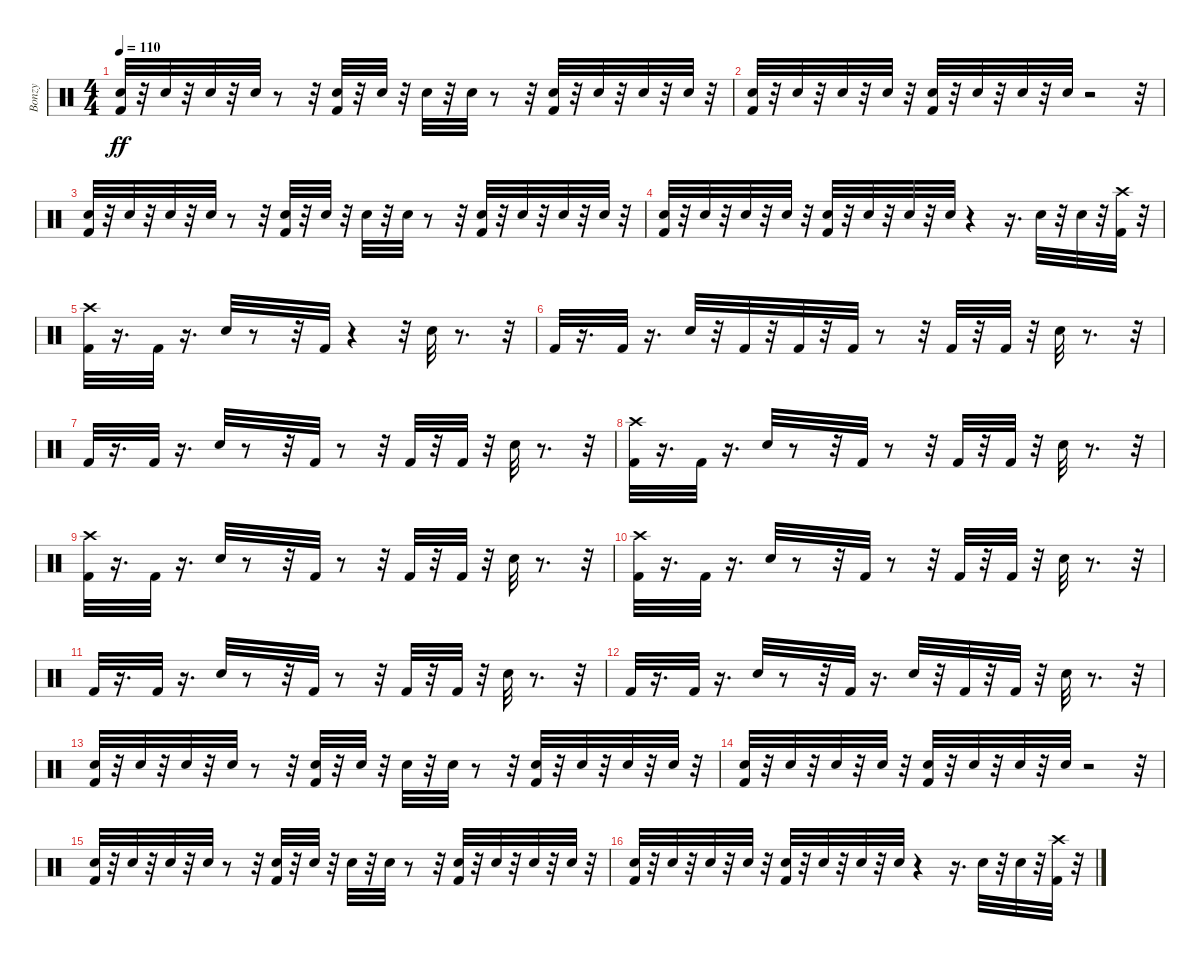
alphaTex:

\track ("Bonzy" "Bonzy") {instrument percussion}
\staff {score}
\articulation defaults
\ts (4 4)
\tempo 110
\clef neutral
\ks c
("Kick (hit) 2" "Electric Snare (hit)").32{dy ff} r.32 "Electric Snare (hit)".32 r.32 "Electric Snare (hit)".32 r.32 "Electric Snare (hit)".32 r.8 r.32 ("Electric Snare (hit)" "Kick (hit) 2").32 r.32 "Electric Snare (hit)".32 r.32 "Electric Snare (hit)".32 r.32 "Electric Snare (hit)".32 r.8 r.32 ("Electric Snare (hit)" "Kick (hit) 2").32 r.32 "Electric Snare (hit)".32 r.32 "Electric Snare (hit)".32 r.32 "Electric Snare (hit)".32 r.32 |
("Kick (hit) 2" "Electric Snare (hit)").32 r.32 "Electric Snare (hit)".32 r.32 "Electric Snare (hit)".32 r.32 "Electric Snare (hit)".32 r.32 ("Electric Snare (hit)" "Kick (hit) 2").32 r.32 "Electric Snare (hit)".32 r.32 "Electric Snare (hit)".32 r.32 "Electric Snare (hit)".32 r.2 r.32 |
("Electric Snare (hit)" "Kick (hit) 2").32 r.32 "Electric Snare (hit)".32 r.32 "Electric Snare (hit)".32 r.32 "Electric Snare (hit)".32 r.8 r.32 ("Kick (hit) 2" "Electric Snare (hit)").32 r.32 "Electric Snare (hit)".32 r.32 "Electric Snare (hit)".32 r.32 "Electric Snare (hit)".32 r.8 r.32 ("Kick (hit) 2" "Electric Snare (hit)").32 r.32 "Electric Snare (hit)".32 r.32 "Electric Snare (hit)".32 r.32 "Electric Snare (hit)".32 r.32 |
("Electric Snare (hit)" "Kick (hit) 2").32 r.32 "Electric Snare (hit)".32 r.32 "Electric Snare (hit)".32 r.32 "Electric Snare (hit)".32 r.32 ("Kick (hit) 2" "Electric Snare (hit)").32 r.32 "Electric Snare (hit)".32 r.32 "Electric Snare (hit)".32 r.32 "Electric Snare (hit)".32 r.4 r.16{d} "Electric Snare (hit)".32 r.32 "Electric Snare (hit)".32 r.32 ("Crash high (hit)" "Kick (hit) 2").32 r.32 |
("Crash high (hit)" "Kick (hit) 2").32 r.16{d} "Kick (hit) 2".32 r.16{d} "Electric Snare (hit)".32 r.8 r.32 "Kick (hit) 2".32 r.4 r.32 "Electric Snare (hit)".32 r.8{d} r.32 |
"Kick (hit) 2".32 r.16{d} "Kick (hit) 2".32 r.16{d} "Electric Snare (hit)".32 r.32 "Kick (hit) 2".32 r.32 "Kick (hit) 2".32 r.32 "Kick (hit) 2".32 r.8 r.32 "Kick (hit) 2".32 r.32 "Kick (hit) 2".32 r.32 "Electric Snare (hit)".32 r.8{d} r.32 |
"Kick (hit) 2".32 r.16{d} "Kick (hit) 2".32 r.16{d} "Electric Snare (hit)".32 r.8 r.32 "Kick (hit) 2".32 r.8 r.32 "Kick (hit) 2".32 r.32 "Kick (hit) 2".32 r.32 "Electric Snare (hit)".32 r.8{d} r.32 |
("Kick (hit) 2" "Crash high (hit)").32 r.16{d} "Kick (hit) 2".32 r.16{d} "Electric Snare (hit)".32 r.8 r.32 "Kick (hit) 2".32 r.8 r.32 "Kick (hit) 2".32 r.32 "Kick (hit) 2".32 r.32 "Electric Snare (hit)".32 r.8{d} r.32 |
("Crash high (hit)" "Kick (hit) 2").32 r.16{d} "Kick (hit) 2".32 r.16{d} "Electric Snare (hit)".32 r.8 r.32 "Kick (hit) 2".32 r.8 r.32 "Kick (hit) 2".32 r.32 "Kick (hit) 2".32 r.32 "Electric Snare (hit)".32 r.8{d} r.32 |
("Crash high (hit)" "Kick (hit) 2").32 r.16{d} "Kick (hit) 2".32 r.16{d} "Electric Snare (hit)".32 r.8 r.32 "Kick (hit) 2".32 r.8 r.32 "Kick (hit) 2".32 r.32 "Kick (hit) 2".32 r.32 "Electric Snare (hit)".32 r.8{d} r.32 |
"Kick (hit) 2".32 r.16{d} "Kick (hit) 2".32 r.16{d} "Electric Snare (hit)".32 r.8 r.32 "Kick (hit) 2".32 r.8 r.32 "Kick (hit) 2".32 r.32 "Kick (hit) 2".32 r.32 "Electric Snare (hit)".32 r.8{d} r.32 |
"Kick (hit) 2".32 r.16{d} "Kick (hit) 2".32 r.16{d} "Electric Snare (hit)".32 r.8 r.32 "Kick (hit) 2".32 r.16{d} "Electric Snare (hit)".32 r.32 "Kick (hit) 2".32 r.32 "Kick (hit) 2".32 r.32 "Electric Snare (hit)".32 r.8{d} r.32 |
("Kick (hit) 2" "Electric Snare (hit)").32 r.32 "Electric Snare (hit)".32 r.32 "Electric Snare (hit)".32 r.32 "Electric Snare (hit)".32 r.8 r.32 ("Electric Snare (hit)" "Kick (hit) 2").32 r.32 "Electric Snare (hit)".32 r.32 "Electric Snare (hit)".32 r.32 "Electric Snare (hit)".32 r.8 r.32 ("Kick (hit) 2" "Electric Snare (hit)").32 r.32 "Electric Snare (hit)".32 r.32 "Electric Snare (hit)".32 r.32 "Electric Snare (hit)".32 r.32 |
("Kick (hit) 2" "Electric Snare (hit)").32 r.32 "Electric Snare (hit)".32 r.32 "Electric Snare (hit)".32 r.32 "Electric Snare (hit)".32 r.32 ("Electric Snare (hit)" "Kick (hit) 2").32 r.32 "Electric Snare (hit)".32 r.32 "Electric Snare (hit)".32 r.32 "Electric Snare (hit)".32 r.2 r.32 |
("Electric Snare (hit)" "Kick (hit) 2").32 r.32 "Electric Snare (hit)".32 r.32 "Electric Snare (hit)".32 r.32 "Electric Snare (hit)".32 r.8 r.32 ("Electric Snare (hit)" "Kick (hit) 2").32 r.32 "Electric Snare (hit)".32 r.32 "Electric Snare (hit)".32 r.32 "Electric Snare (hit)".32 r.8 r.32 ("Electric Snare (hit)" "Kick (hit) 2").32 r.32 "Electric Snare (hit)".32 r.32 "Electric Snare (hit)".32 r.32 "Electric Snare (hit)".32 r.32 |
("Electric Snare (hit)" "Kick (hit) 2").32 r.32 "Electric Snare (hit)".32 r.32 "Electric Snare (hit)".32 r.32 "Electric Snare (hit)".32 r.32 ("Electric Snare (hit)" "Kick (hit) 2").32 r.32 "Electric Snare (hit)".32 r.32 "Electric Snare (hit)".32 r.32 "Electric Snare (hit)".32 r.4 r.16{d} "Electric Snare (hit)".32 r.32 "Electric Snare (hit)".32 r.32 ("Crash high (hit)" "Kick (hit) 2").32 r.32
